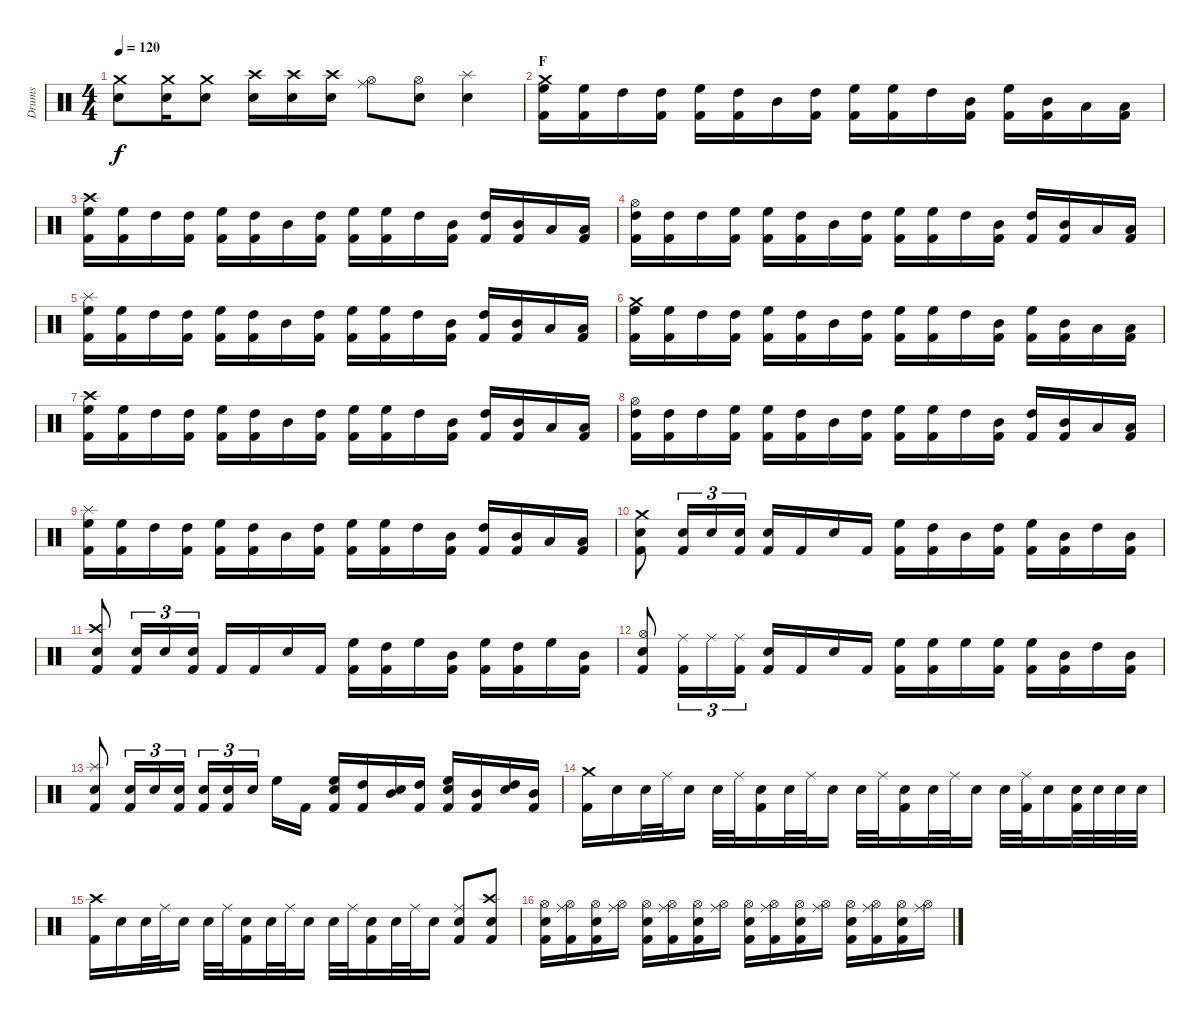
\track ("Drums" "Drums") {instrument percussion}
\staff {score}
\articulation defaults
\ts (4 4)
\tempo 120
\clef neutral
\ks c
("Crash medium (hit)" "Electric Snare (hit)").8{dy f} ("Crash medium (hit)" "Snare (hit) 2").16 ("Crash medium (hit)" "Electric Snare (hit)").8 ("Crash high (hit)" "Electric Snare (hit)").16 ("Crash high (hit)" "Snare (hit) 2").16 ("Crash high (hit)" "Electric Snare (hit)").16 ("Hi-Hat (open)" "Ride (middle)").8 ("Hi-Hat (open)" "Electric Snare (hit)").8 ("Splash (hit)" "Electric Snare (hit)").4 |
\section ("" "F")
("Crash medium (hit)" "High Floor Tom (hit)" "Kick (hit) 2").16 ("High Floor Tom (hit)" "Kick (hit) 2").16 "High Tom (hit)".16 ("High Tom (hit)" "Kick (hit) 2").16 ("High Floor Tom (hit)" "Kick (hit) 2").16 ("High Tom (hit)" "Kick (hit) 2").16 "Mid Tom (hit)".16 ("High Tom (hit)" "Kick (hit) 2").16 ("High Floor Tom (hit)" "Kick (hit) 2").16 ("High Floor Tom (hit)" "Kick (hit) 2").16 "High Tom (hit)".16 ("Mid Tom (hit)" "Kick (hit) 2").16 ("High Floor Tom (hit)" "Kick (hit) 2").16 ("Mid Tom (hit)" "Kick (hit) 2").16 "Low Tom (hit)".16 ("Low Floor Tom (hit)" "Kick (hit) 2").16 |
("Crash high (hit)" "High Floor Tom (hit)" "Kick (hit) 2").16 ("High Floor Tom (hit)" "Kick (hit) 2").16 "High Tom (hit)".16 ("High Tom (hit)" "Kick (hit) 2").16 ("High Floor Tom (hit)" "Kick (hit) 2").16 ("High Tom (hit)" "Kick (hit) 2").16 "Mid Tom (hit)".16 ("High Tom (hit)" "Kick (hit) 2").16 ("High Floor Tom (hit)" "Kick (hit) 2").16 ("High Floor Tom (hit)" "Kick (hit) 2").16 "High Tom (hit)".16 ("Mid Tom (hit)" "Kick (hit) 2").16 ("High Tom (hit)" "Kick (hit) 2").16 ("Mid Tom (hit)" "Kick (hit) 2").16 "Low Tom (hit)".16 ("Low Floor Tom (hit)" "Kick (hit) 2").16 |
("Hi-Hat (open)" "High Tom (hit)" "Kick (hit) 2").16 ("High Tom (hit)" "Kick (hit) 2").16 "High Tom (hit)".16 ("High Floor Tom (hit)" "Kick (hit) 2").16 ("High Floor Tom (hit)" "Kick (hit) 2").16 ("High Tom (hit)" "Kick (hit) 2").16 "Mid Tom (hit)".16 ("High Tom (hit)" "Kick (hit) 2").16 ("High Floor Tom (hit)" "Kick (hit) 2").16 ("High Floor Tom (hit)" "Kick (hit) 2").16 "High Tom (hit)".16 ("Mid Tom (hit)" "Kick (hit) 2").16 ("High Tom (hit)" "Kick (hit) 2").16 ("Mid Tom (hit)" "Kick (hit) 2").16 "Low Tom (hit)".16 ("Low Floor Tom (hit)" "Kick (hit) 2").16 |
("Splash (hit)" "High Floor Tom (hit)" "Kick (hit) 2").16 ("High Floor Tom (hit)" "Kick (hit) 2").16 "High Tom (hit)".16 ("High Tom (hit)" "Kick (hit) 2").16 ("High Floor Tom (hit)" "Kick (hit) 2").16 ("High Tom (hit)" "Kick (hit) 2").16 "Mid Tom (hit)".16 ("High Tom (hit)" "Kick (hit) 2").16 ("High Floor Tom (hit)" "Kick (hit) 2").16 ("High Floor Tom (hit)" "Kick (hit) 2").16 "High Tom (hit)".16 ("Mid Tom (hit)" "Kick (hit) 2").16 ("High Tom (hit)" "Kick (hit) 2").16 ("Mid Tom (hit)" "Kick (hit) 2").16 "Low Tom (hit)".16 ("Low Floor Tom (hit)" "Kick (hit) 2").16 |
("Crash medium (hit)" "High Floor Tom (hit)" "Kick (hit) 2").16 ("High Floor Tom (hit)" "Kick (hit) 2").16 "High Tom (hit)".16 ("High Tom (hit)" "Kick (hit) 2").16 ("High Floor Tom (hit)" "Kick (hit) 2").16 ("High Tom (hit)" "Kick (hit) 2").16 "Mid Tom (hit)".16 ("High Tom (hit)" "Kick (hit) 2").16 ("High Floor Tom (hit)" "Kick (hit) 2").16 ("High Floor Tom (hit)" "Kick (hit) 2").16 "High Tom (hit)".16 ("Mid Tom (hit)" "Kick (hit) 2").16 ("High Floor Tom (hit)" "Kick (hit) 2").16 ("Mid Tom (hit)" "Kick (hit) 2").16 "Low Tom (hit)".16 ("Low Floor Tom (hit)" "Kick (hit) 2").16 |
("Crash high (hit)" "High Floor Tom (hit)" "Kick (hit) 2").16 ("High Floor Tom (hit)" "Kick (hit) 2").16 "High Tom (hit)".16 ("High Tom (hit)" "Kick (hit) 2").16 ("High Floor Tom (hit)" "Kick (hit) 2").16 ("High Tom (hit)" "Kick (hit) 2").16 "Mid Tom (hit)".16 ("High Tom (hit)" "Kick (hit) 2").16 ("High Floor Tom (hit)" "Kick (hit) 2").16 ("High Floor Tom (hit)" "Kick (hit) 2").16 "High Tom (hit)".16 ("Mid Tom (hit)" "Kick (hit) 2").16 ("High Tom (hit)" "Kick (hit) 2").16 ("Mid Tom (hit)" "Kick (hit) 2").16 "Low Tom (hit)".16 ("Low Floor Tom (hit)" "Kick (hit) 2").16 |
("Hi-Hat (open)" "High Tom (hit)" "Kick (hit) 2").16 ("High Tom (hit)" "Kick (hit) 2").16 "High Tom (hit)".16 ("High Floor Tom (hit)" "Kick (hit) 2").16 ("High Floor Tom (hit)" "Kick (hit) 2").16 ("High Tom (hit)" "Kick (hit) 2").16 "Mid Tom (hit)".16 ("High Tom (hit)" "Kick (hit) 2").16 ("High Floor Tom (hit)" "Kick (hit) 2").16 ("High Floor Tom (hit)" "Kick (hit) 2").16 "High Tom (hit)".16 ("Mid Tom (hit)" "Kick (hit) 2").16 ("High Tom (hit)" "Kick (hit) 2").16 ("Mid Tom (hit)" "Kick (hit) 2").16 "Low Tom (hit)".16 ("Low Floor Tom (hit)" "Kick (hit) 2").16 |
("Splash (hit)" "High Floor Tom (hit)" "Kick (hit) 2").16 ("High Floor Tom (hit)" "Kick (hit) 2").16 "High Tom (hit)".16 ("High Tom (hit)" "Kick (hit) 2").16 ("High Floor Tom (hit)" "Kick (hit) 2").16 ("High Tom (hit)" "Kick (hit) 2").16 "Mid Tom (hit)".16 ("High Tom (hit)" "Kick (hit) 2").16 ("High Floor Tom (hit)" "Kick (hit) 2").16 ("High Floor Tom (hit)" "Kick (hit) 2").16 "High Tom (hit)".16 ("Mid Tom (hit)" "Kick (hit) 2").16 ("High Tom (hit)" "Kick (hit) 2").16 ("Mid Tom (hit)" "Kick (hit) 2").16 "Low Tom (hit)".16 ("Low Floor Tom (hit)" "Kick (hit) 2").16 |
("Crash medium (hit)" "Electric Snare (hit)" "Kick (hit) 2").8 ("Electric Snare (hit)" "Kick (hit) 2").16{tu (3 2)} "Electric Snare (hit)".16{tu (3 2)} ("Electric Snare (hit)" "Kick (hit) 2").16{tu (3 2)} ("Electric Snare (hit)" "Kick (hit) 2").16 "Kick (hit) 2".16 "Electric Snare (hit)".16 "Kick (hit) 2".16 ("High Floor Tom (hit)" "Kick (hit) 2").16 ("High Tom (hit)" "Kick (hit) 2").16 "Mid Tom (hit)".16 ("High Tom (hit)" "Kick (hit) 2").16 ("High Floor Tom (hit)" "Kick (hit) 2").16 ("Mid Tom (hit)" "Kick (hit) 2").16 "High Tom (hit)".16 ("Mid Tom (hit)" "Kick (hit) 2").16 |
("Crash high (hit)" "Electric Snare (hit)" "Kick (hit) 2").8 ("Electric Snare (hit)" "Kick (hit) 2").16{tu (3 2)} "Snare (hit) 2".16{tu (3 2)} ("Electric Snare (hit)" "Kick (hit) 2").16{tu (3 2)} "Kick (hit) 2".16 "Kick (hit) 2".16 "Electric Snare (hit)".16 "Kick (hit) 2".16 ("High Floor Tom (hit)" "Kick (hit) 2").16 ("High Tom (hit)" "Kick (hit) 2").16 "High Floor Tom (hit)".16 ("Mid Tom (hit)" "Kick (hit) 2").16 ("High Floor Tom (hit)" "Kick (hit) 2").16 ("High Tom (hit)" "Kick (hit) 2").16 "High Floor Tom (hit)".16 ("Mid Tom (hit)" "Kick (hit) 2").16 |
("Hi-Hat (open)" "Electric Snare (hit)" "Kick (hit) 2").8 ("Ride (middle)" "Kick (hit) 2").16{tu (3 2)} "Ride (middle)".16{tu (3 2)} ("Ride (middle)" "Kick (hit) 2").16{tu (3 2)} ("Electric Snare (hit)" "Kick (hit) 2").16 "Kick (hit) 2".16 "Electric Snare (hit)".16 "Kick (hit) 2".16 ("High Floor Tom (hit)" "Kick (hit) 2").16 ("High Floor Tom (hit)" "Kick (hit) 2").16 "High Floor Tom (hit)".16 ("High Floor Tom (hit)" "Kick (hit) 2").16 ("High Floor Tom (hit)" "Kick (hit) 2").16 ("Mid Tom (hit)" "Kick (hit) 2").16 "High Tom (hit)".16 ("Mid Tom (hit)" "Kick (hit) 2").16 |
("Splash (hit)" "Electric Snare (hit)" "Kick (hit) 2").8 ("Electric Snare (hit)" "Kick (hit) 2").16{tu (3 2)} "Electric Snare (hit)".16{tu (3 2)} ("Electric Snare (hit)" "Kick (hit) 2").16{tu (3 2)} ("Electric Snare (hit)" "Kick (hit) 2").16{tu (3 2)} ("Electric Snare (hit)" "Kick (hit) 2").16{tu (3 2)} "Electric Snare (hit)".16{tu (3 2)} "High Floor Tom (hit)".16 "Kick (hit) 2".16 ("Electric Snare (hit)" "High Floor Tom (hit)" "Kick (hit) 2").16 ("High Tom (hit)" "Kick (hit) 2").16 ("Electric Snare (hit)" "Mid Tom (hit)").16 ("High Tom (hit)" "Kick (hit) 2").16 ("Electric Snare (hit)" "High Floor Tom (hit)" "Kick (hit) 2").16 ("Mid Tom (hit)" "Kick (hit) 2").16 ("Electric Snare (hit)" "High Tom (hit)").16 ("Mid Tom (hit)" "Kick (hit) 2").16 |
("Crash medium (hit)" "Kick (hit) 2").16 "Electric Snare (hit)".16 "Electric Snare (hit)".32 "Ride (middle)".32 "Electric Snare (hit)".16 "Electric Snare (hit)".32 "Ride (middle)".32 ("Electric Snare (hit)" "Kick (hit) 2").16 "Electric Snare (hit)".32 "Ride (middle)".32 "Electric Snare (hit)".16 "Electric Snare (hit)".32 "Ride (middle)".32 ("Electric Snare (hit)" "Kick (hit) 2").16 "Electric Snare (hit)".32 "Ride (middle)".32 "Electric Snare (hit)".16 "Electric Snare (hit)".32 ("Ride (middle)" "Kick (hit) 2").32 "Electric Snare (hit)".16 ("Electric Snare (hit)" "Kick (hit) 2").32 "Electric Snare (hit)".32 "Electric Snare (hit)".32 "Electric Snare (hit)".32 |
("Crash high (hit)" "Kick (hit) 2").16 "Electric Snare (hit)".16 "Electric Snare (hit)".32 "Ride (middle)".32 "Electric Snare (hit)".16 "Electric Snare (hit)".32 "Ride (middle)".32 ("Electric Snare (hit)" "Kick (hit) 2").16 "Electric Snare (hit)".32 "Ride (middle)".32 "Electric Snare (hit)".16 "Electric Snare (hit)".32 "Ride (middle)".32 ("Electric Snare (hit)" "Kick (hit) 2").16 "Electric Snare (hit)".32 "Ride (middle)".32 "Electric Snare (hit)".16 ("Ride (middle)" "Electric Snare (hit)" "Kick (hit) 2").8 ("Crash high (hit)" "Electric Snare (hit)" "Kick (hit) 2").8 |
("Hi-Hat (open)" "Electric Snare (hit)" "Kick (hit) 2").16 ("Hi-Hat (open)" "Ride (middle)" "Kick (hit) 2").16 ("Hi-Hat (open)" "Electric Snare (hit)" "Kick (hit) 2").16 ("Hi-Hat (open)" "Ride (middle)").16 ("Hi-Hat (open)" "Electric Snare (hit)" "Kick (hit) 2").16 ("Hi-Hat (open)" "Ride (middle)" "Kick (hit) 2").16 ("Hi-Hat (open)" "Electric Snare (hit)" "Kick (hit) 2").16 ("Hi-Hat (open)" "Ride (middle)").16 ("Hi-Hat (open)" "Electric Snare (hit)" "Kick (hit) 2").16 ("Hi-Hat (open)" "Ride (middle)" "Kick (hit) 2").16 ("Hi-Hat (open)" "Electric Snare (hit)" "Kick (hit) 2").16 ("Hi-Hat (open)" "Ride (middle)").16 ("Hi-Hat (open)" "Electric Snare (hit)" "Kick (hit) 2").16 ("Hi-Hat (open)" "Ride (middle)" "Kick (hit) 2").16 ("Hi-Hat (open)" "Electric Snare (hit)" "Kick (hit) 2").16 ("Hi-Hat (open)" "Ride (middle)").16
